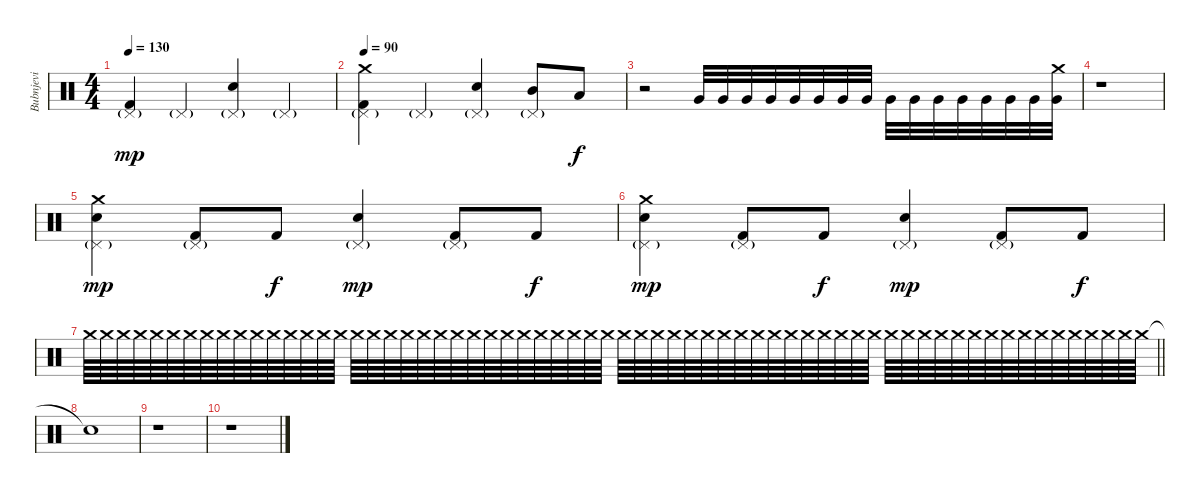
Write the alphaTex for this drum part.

\track ("Bubnjevi" "Bubnjevi") {instrument percussion}
\staff {score}
\articulation defaults
\ts (4 4)
\tempo 130
\clef neutral
\ks c
("Pedal Hi-Hat (hit)"{g} "Kick (hit) 2").4{dy mp} "Pedal Hi-Hat (hit)"{g}.4 ("Pedal Hi-Hat (hit)"{g} "Electric Snare (hit)").4 "Pedal Hi-Hat (hit)"{g}.4 |
\tempo 90
("Crash medium (hit)" "Pedal Hi-Hat (hit)"{g} "Kick (hit) 2").4 "Pedal Hi-Hat (hit)"{g}.4 ("Pedal Hi-Hat (hit)"{g} "Electric Snare (hit)").4 ("Pedal Hi-Hat (hit)"{g} "Mid Tom (hit)").8 "Low Tom (hit)".8{dy f} |
r.2 "Very Low Tom (hit)".32 "Very Low Tom (hit)".32 "Very Low Tom (hit)".32 "Very Low Tom (hit)".32 "Very Low Tom (hit)".32 "Very Low Tom (hit)".32 "Very Low Tom (hit)".32 "Very Low Tom (hit)".32 "Very Low Tom (hit)".32 "Very Low Tom (hit)".32 "Very Low Tom (hit)".32 "Very Low Tom (hit)".32 "Very Low Tom (hit)".32 "Very Low Tom (hit)".32 "Very Low Tom (hit)".32 ("Crash medium (hit)" "Very Low Tom (hit)").32 |
r.1 |
("Crash medium (hit)" "Pedal Hi-Hat (hit)"{g} "Electric Snare (hit)").4{dy mp} ("Pedal Hi-Hat (hit)"{g} "Kick (hit) 2").8 "Kick (hit) 2".8{dy f} ("Pedal Hi-Hat (hit)"{g} "Electric Snare (hit)").4{dy mp} ("Pedal Hi-Hat (hit)"{g} "Kick (hit) 2").8 "Kick (hit) 2".8{dy f} |
("Crash medium (hit)" "Pedal Hi-Hat (hit)"{g} "Electric Snare (hit)").4{dy mp} ("Pedal Hi-Hat (hit)"{g} "Kick (hit) 2").8 "Kick (hit) 2".8{dy f} ("Pedal Hi-Hat (hit)"{g} "Electric Snare (hit)").4{dy mp} ("Pedal Hi-Hat (hit)"{g} "Kick (hit) 2").8 "Kick (hit) 2".8{dy f} |
\barLineRight lightlight "Crash medium (hit)".64 "Crash medium (hit)".64 "Crash medium (hit)".64 "Crash medium (hit)".64 "Crash medium (hit)".64 "Crash medium (hit)".64 "Crash medium (hit)".64 "Crash medium (hit)".64 "Crash medium (hit)".64 "Crash medium (hit)".64 "Crash medium (hit)".64 "Crash medium (hit)".64 "Crash medium (hit)".64 "Crash medium (hit)".64 "Crash medium (hit)".64 "Crash medium (hit)".64 "Crash medium (hit)".64 "Crash medium (hit)".64 "Crash medium (hit)".64 "Crash medium (hit)".64 "Crash medium (hit)".64 "Crash medium (hit)".64 "Crash medium (hit)".64 "Crash medium (hit)".64 "Crash medium (hit)".64 "Crash medium (hit)".64 "Crash medium (hit)".64 "Crash medium (hit)".64 "Crash medium (hit)".64 "Crash medium (hit)".64 "Crash medium (hit)".64 "Crash medium (hit)".64 "Crash medium (hit)".64 "Crash medium (hit)".64 "Crash medium (hit)".64 "Crash medium (hit)".64 "Crash medium (hit)".64 "Crash medium (hit)".64 "Crash medium (hit)".64 "Crash medium (hit)".64 "Crash medium (hit)".64 "Crash medium (hit)".64 "Crash medium (hit)".64 "Crash medium (hit)".64 "Crash medium (hit)".64 "Crash medium (hit)".64 "Crash medium (hit)".64 "Crash medium (hit)".64 "Crash medium (hit)".64 "Crash medium (hit)".64 "Crash medium (hit)".64 "Crash medium (hit)".64 "Crash medium (hit)".64 "Crash medium (hit)".64 "Crash medium (hit)".64 "Crash medium (hit)".64 "Crash medium (hit)".64 "Crash medium (hit)".64 "Crash medium (hit)".64 "Crash medium (hit)".64 "Crash medium (hit)".64 "Crash medium (hit)".64 "Crash medium (hit)".64 "Crash medium (hit)".64
|
"Snare (hit)"{t}.1 |
r.1 |
r.1
